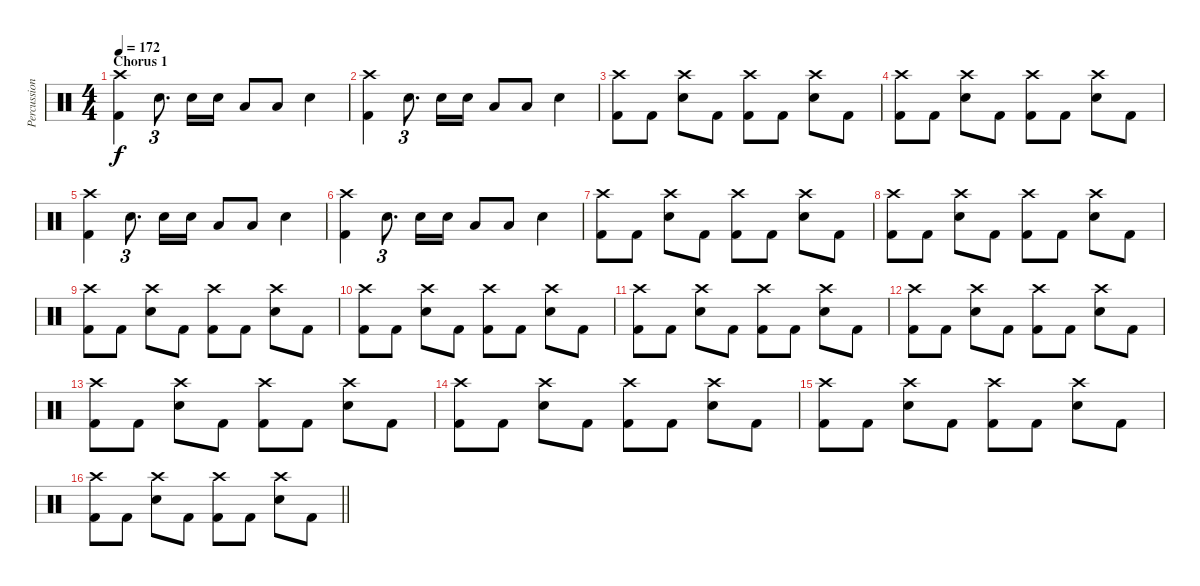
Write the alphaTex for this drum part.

\track ("Percussion" "Percussion") {instrument percussion}
\staff {score}
\articulation defaults
\ts (4 4)
\section ("" "Chorus 1")
\tempo 172
\clef neutral
\ks c
("Crash high (hit)" "Kick (hit) 2").4{dy f} "Electric Snare (hit)".8{d tu (3 2)} "Electric Snare (hit)".16 "Electric Snare (hit)".16 "Low Tom (hit)".8 "Low Tom (hit)".8 "Electric Snare (hit)".4 |
("Crash high (hit)" "Kick (hit) 2").4 "Electric Snare (hit)".8{d tu (3 2)} "Electric Snare (hit)".16 "Electric Snare (hit)".16 "Low Tom (hit)".8 "Low Tom (hit)".8 "Electric Snare (hit)".4 |
("Crash high (hit)" "Kick (hit) 2").8 "Kick (hit) 2".8 ("Crash high (hit)" "Electric Snare (hit)").8 "Kick (hit) 2".8 ("Crash high (hit)" "Kick (hit) 2").8 "Kick (hit) 2".8 ("Crash high (hit)" "Electric Snare (hit)").8 "Kick (hit) 2".8 |
("Crash high (hit)" "Kick (hit) 2").8 "Kick (hit) 2".8 ("Crash high (hit)" "Electric Snare (hit)").8 "Kick (hit) 2".8 ("Crash high (hit)" "Kick (hit) 2").8 "Kick (hit) 2".8 ("Crash high (hit)" "Electric Snare (hit)").8 "Kick (hit) 2".8 |
("Crash high (hit)" "Kick (hit) 2").4 "Electric Snare (hit)".8{d tu (3 2)} "Electric Snare (hit)".16 "Electric Snare (hit)".16 "Low Tom (hit)".8 "Low Tom (hit)".8 "Electric Snare (hit)".4 |
("Crash high (hit)" "Kick (hit) 2").4 "Electric Snare (hit)".8{d tu (3 2)} "Electric Snare (hit)".16 "Electric Snare (hit)".16 "Low Tom (hit)".8 "Low Tom (hit)".8 "Electric Snare (hit)".4 |
("Crash high (hit)" "Kick (hit) 2").8 "Kick (hit) 2".8 ("Crash high (hit)" "Electric Snare (hit)").8 "Kick (hit) 2".8 ("Crash high (hit)" "Kick (hit) 2").8 "Kick (hit) 2".8 ("Crash high (hit)" "Electric Snare (hit)").8 "Kick (hit) 2".8 |
("Crash high (hit)" "Kick (hit) 2").8 "Kick (hit) 2".8 ("Crash high (hit)" "Electric Snare (hit)").8 "Kick (hit) 2".8 ("Crash high (hit)" "Kick (hit) 2").8 "Kick (hit) 2".8 ("Crash high (hit)" "Electric Snare (hit)").8 "Kick (hit) 2".8 |
("Crash high (hit)" "Kick (hit) 2").8 "Kick (hit) 2".8 ("Crash high (hit)" "Electric Snare (hit)").8 "Kick (hit) 2".8 ("Crash high (hit)" "Kick (hit) 2").8 "Kick (hit) 2".8 ("Crash high (hit)" "Electric Snare (hit)").8 "Kick (hit) 2".8 |
("Crash high (hit)" "Kick (hit) 2").8 "Kick (hit) 2".8 ("Crash high (hit)" "Electric Snare (hit)").8 "Kick (hit) 2".8 ("Crash high (hit)" "Kick (hit) 2").8 "Kick (hit) 2".8 ("Crash high (hit)" "Electric Snare (hit)").8 "Kick (hit) 2".8 |
("Crash high (hit)" "Kick (hit) 2").8 "Kick (hit) 2".8 ("Crash high (hit)" "Electric Snare (hit)").8 "Kick (hit) 2".8 ("Crash high (hit)" "Kick (hit) 2").8 "Kick (hit) 2".8 ("Crash high (hit)" "Electric Snare (hit)").8 "Kick (hit) 2".8 |
("Crash high (hit)" "Kick (hit) 2").8 "Kick (hit) 2".8 ("Crash high (hit)" "Electric Snare (hit)").8 "Kick (hit) 2".8 ("Crash high (hit)" "Kick (hit) 2").8 "Kick (hit) 2".8 ("Crash high (hit)" "Electric Snare (hit)").8 "Kick (hit) 2".8 |
("Crash high (hit)" "Kick (hit) 2").8 "Kick (hit) 2".8 ("Crash high (hit)" "Electric Snare (hit)").8 "Kick (hit) 2".8 ("Crash high (hit)" "Kick (hit) 2").8 "Kick (hit) 2".8 ("Crash high (hit)" "Electric Snare (hit)").8 "Kick (hit) 2".8 |
("Crash high (hit)" "Kick (hit) 2").8 "Kick (hit) 2".8 ("Crash high (hit)" "Electric Snare (hit)").8 "Kick (hit) 2".8 ("Crash high (hit)" "Kick (hit) 2").8 "Kick (hit) 2".8 ("Crash high (hit)" "Electric Snare (hit)").8 "Kick (hit) 2".8 |
("Crash high (hit)" "Kick (hit) 2").8 "Kick (hit) 2".8 ("Crash high (hit)" "Electric Snare (hit)").8 "Kick (hit) 2".8 ("Crash high (hit)" "Kick (hit) 2").8 "Kick (hit) 2".8 ("Crash high (hit)" "Electric Snare (hit)").8 "Kick (hit) 2".8 |
\barLineRight lightlight
("Crash high (hit)" "Kick (hit) 2").8 "Kick (hit) 2".8 ("Crash high (hit)" "Electric Snare (hit)").8 "Kick (hit) 2".8 ("Crash high (hit)" "Kick (hit) 2").8 "Kick (hit) 2".8 ("Crash high (hit)" "Electric Snare (hit)").8 "Kick (hit) 2".8
